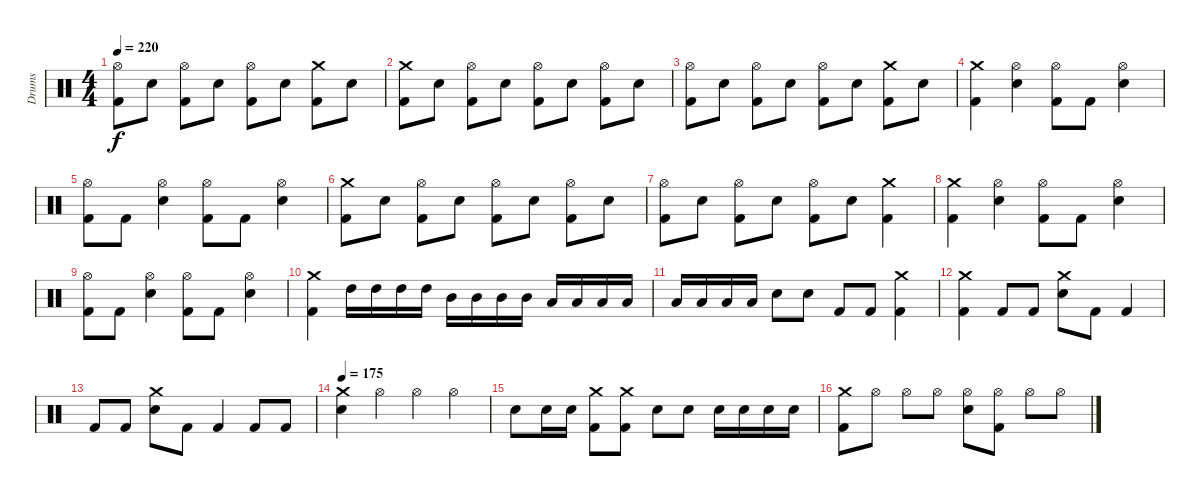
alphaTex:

\track ("Drums" "Drums") {instrument percussion}
\staff {score}
\articulation defaults
\ts (4 4)
\tempo 220
\clef neutral
\ks c
("Hi-Hat (open)" "Kick (hit) 2").8{dy f} "Electric Snare (hit)".8 ("Hi-Hat (open)" "Kick (hit) 2").8 "Electric Snare (hit)".8 ("Hi-Hat (open)" "Kick (hit) 2").8 "Electric Snare (hit)".8 ("Crash medium (hit)" "Kick (hit) 2").8 "Electric Snare (hit)".8 |
("Crash medium (hit)" "Kick (hit) 2").8 "Electric Snare (hit)".8 ("Hi-Hat (open)" "Kick (hit) 2").8 "Electric Snare (hit)".8 ("Hi-Hat (open)" "Kick (hit) 2").8 "Electric Snare (hit)".8 ("Hi-Hat (open)" "Kick (hit) 2").8 "Electric Snare (hit)".8 |
("Hi-Hat (open)" "Kick (hit) 2").8 "Electric Snare (hit)".8 ("Hi-Hat (open)" "Kick (hit) 2").8 "Electric Snare (hit)".8 ("Hi-Hat (open)" "Kick (hit) 2").8 "Electric Snare (hit)".8 ("Crash medium (hit)" "Kick (hit) 2").8 "Electric Snare (hit)".8 |
("Crash medium (hit)" "Kick (hit) 2").4 ("Hi-Hat (open)" "Electric Snare (hit)").4 ("Hi-Hat (open)" "Kick (hit) 2").8 "Kick (hit) 2".8 ("Hi-Hat (open)" "Electric Snare (hit)").4 |
("Hi-Hat (open)" "Kick (hit) 2").8 "Kick (hit) 2".8 ("Hi-Hat (open)" "Electric Snare (hit)").4 ("Hi-Hat (open)" "Kick (hit) 2").8 "Kick (hit) 2".8 ("Hi-Hat (open)" "Electric Snare (hit)").4 |
("Crash medium (hit)" "Kick (hit) 2").8 "Electric Snare (hit)".8 ("Hi-Hat (open)" "Kick (hit) 2").8 "Electric Snare (hit)".8 ("Hi-Hat (open)" "Kick (hit) 2").8 "Electric Snare (hit)".8 ("Hi-Hat (open)" "Kick (hit) 2").8 "Electric Snare (hit)".8 |
("Hi-Hat (open)" "Kick (hit) 2").8 "Electric Snare (hit)".8 ("Hi-Hat (open)" "Kick (hit) 2").8 "Electric Snare (hit)".8 ("Hi-Hat (open)" "Kick (hit) 2").8 "Electric Snare (hit)".8 ("Crash medium (hit)" "Kick (hit) 2").4 |
("Crash medium (hit)" "Kick (hit) 2").4 ("Hi-Hat (open)" "Electric Snare (hit)").4 ("Hi-Hat (open)" "Kick (hit) 2").8 "Kick (hit) 2".8 ("Hi-Hat (open)" "Electric Snare (hit)").4 |
("Hi-Hat (open)" "Kick (hit) 2").8 "Kick (hit) 2".8 ("Hi-Hat (open)" "Electric Snare (hit)").4 ("Hi-Hat (open)" "Kick (hit) 2").8 "Kick (hit) 2".8 ("Hi-Hat (open)" "Electric Snare (hit)").4 |
("Crash medium (hit)" "Kick (hit) 2").4 "High Tom (hit)".16 "High Tom (hit)".16 "High Tom (hit)".16 "High Tom (hit)".16 "Mid Tom (hit)".16 "Mid Tom (hit)".16 "Mid Tom (hit)".16 "Mid Tom (hit)".16 "Low Tom (hit)".16 "Low Tom (hit)".16 "Low Tom (hit)".16 "Low Tom (hit)".16 |
"Low Tom (hit)".16 "Low Tom (hit)".16 "Low Tom (hit)".16 "Low Tom (hit)".16 "Electric Snare (hit)".8 "Electric Snare (hit)".8 "Kick (hit) 2".8 "Kick (hit) 2".8 ("Crash medium (hit)" "Kick (hit) 2").4 |
("Crash medium (hit)" "Kick (hit) 2").4 "Kick (hit) 2".8 "Kick (hit) 2".8 ("Crash medium (hit)" "Electric Snare (hit)").8 "Kick (hit) 2".8 "Kick (hit) 2".4 |
"Kick (hit) 2".8 "Kick (hit) 2".8 ("Crash medium (hit)" "Electric Snare (hit)").8 "Kick (hit) 2".8 "Kick (hit) 2".4 "Kick (hit) 2".8 "Kick (hit) 2".8 |
\tempo 175
("Crash medium (hit)" "Electric Snare (hit)").4 "Hi-Hat (open)".4 "Hi-Hat (open)".4 "Hi-Hat (open)".4 |
"Electric Snare (hit)".8 "Electric Snare (hit)".16 "Electric Snare (hit)".16 ("Crash medium (hit)" "Kick (hit) 2").8 ("Kick (hit) 2" "Crash medium (hit)").8 "Electric Snare (hit)".8 "Electric Snare (hit)".8 "Electric Snare (hit)".16 "Electric Snare (hit)".16 "Electric Snare (hit)".16 "Electric Snare (hit)".16 |
("Kick (hit) 2" "Crash medium (hit)").8 "Hi-Hat (open)".8 "Hi-Hat (open)".8 "Hi-Hat (open)".8 ("Electric Snare (hit)" "Hi-Hat (open)").8 ("Kick (hit) 2" "Hi-Hat (open)").8 "Hi-Hat (open)".8 "Hi-Hat (open)".8
